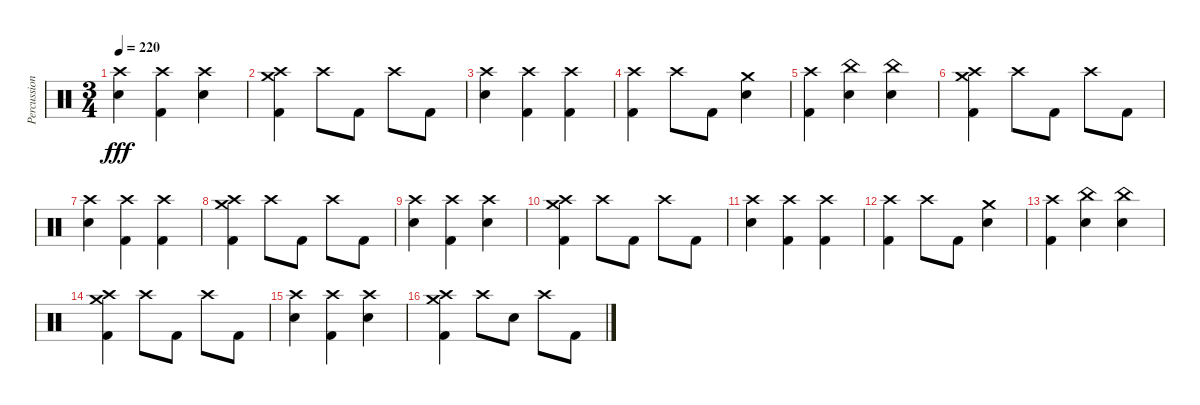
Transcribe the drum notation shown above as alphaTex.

\track ("Percussions" "Percussion") {instrument percussion}
\staff {score}
\articulation defaults
\ts (3 4)
\tempo 220
\clef neutral
\ks c
("Crash high (hit)" "Electric Snare (hit)").4{dy fff} ("Crash high (hit)" "Kick (hit) 2").4 ("Crash high (hit)" "Electric Snare (hit)").4 |
("Crash high (hit)" "Crash medium (hit)" "Kick (hit) 2").4 "Crash high (hit)".8 "Kick (hit) 2".8 "Crash high (hit)".8 "Kick (hit) 2".8 |
("Crash high (hit)" "Electric Snare (hit)").4 ("Crash high (hit)" "Kick (hit) 2").4 ("Crash high (hit)" "Kick (hit) 2").4 |
("Crash high (hit)" "Kick (hit) 2").4 "Crash high (hit)".8 "Kick (hit) 2".8 ("Crash medium (hit)" "Electric Snare (hit)").4 |
("Crash high (hit)" "Kick (hit) 2").4 ("China (hit)" "Electric Snare (hit)").4 ("China (hit)" "Electric Snare (hit)").4 |
("Crash high (hit)" "Crash medium (hit)" "Kick (hit) 2").4{bd 240} "Crash high (hit)".8 "Kick (hit) 2".8 "Crash high (hit)".8 "Kick (hit) 2".8 |
("Crash high (hit)" "Electric Snare (hit)").4 ("Crash high (hit)" "Kick (hit) 2").4 ("Crash high (hit)" "Kick (hit) 2").4 |
("Crash high (hit)" "Crash medium (hit)" "Kick (hit) 2").4 "Crash high (hit)".8 "Kick (hit) 2".8 "Crash high (hit)".8 "Kick (hit) 2".8 |
("Crash high (hit)" "Electric Snare (hit)").4 ("Crash high (hit)" "Kick (hit) 2").4 ("Crash high (hit)" "Electric Snare (hit)").4 |
("Crash high (hit)" "Crash medium (hit)" "Kick (hit) 2").4 "Crash high (hit)".8 "Kick (hit) 2".8 "Crash high (hit)".8 "Kick (hit) 2".8 |
("Crash high (hit)" "Electric Snare (hit)").4 ("Crash high (hit)" "Kick (hit) 2").4 ("Crash high (hit)" "Kick (hit) 2").4 |
("Crash high (hit)" "Kick (hit) 2").4 "Crash high (hit)".8 "Kick (hit) 2".8 ("Crash medium (hit)" "Electric Snare (hit)").4 |
("Crash high (hit)" "Kick (hit) 2").4 ("China (hit)" "Electric Snare (hit)").4 ("China (hit)" "Electric Snare (hit)").4 |
("Crash high (hit)" "Crash medium (hit)" "Kick (hit) 2").4 "Crash high (hit)".8 "Kick (hit) 2".8 "Crash high (hit)".8 "Kick (hit) 2".8 |
("Crash high (hit)" "Electric Snare (hit)").4 ("Crash high (hit)" "Kick (hit) 2").4 ("Crash high (hit)" "Electric Snare (hit)").4 |
("Crash high (hit)" "Crash medium (hit)" "Kick (hit) 2").4 "Crash high (hit)".8 "Electric Snare (hit)".8 "Crash high (hit)".8 "Kick (hit) 2".8
